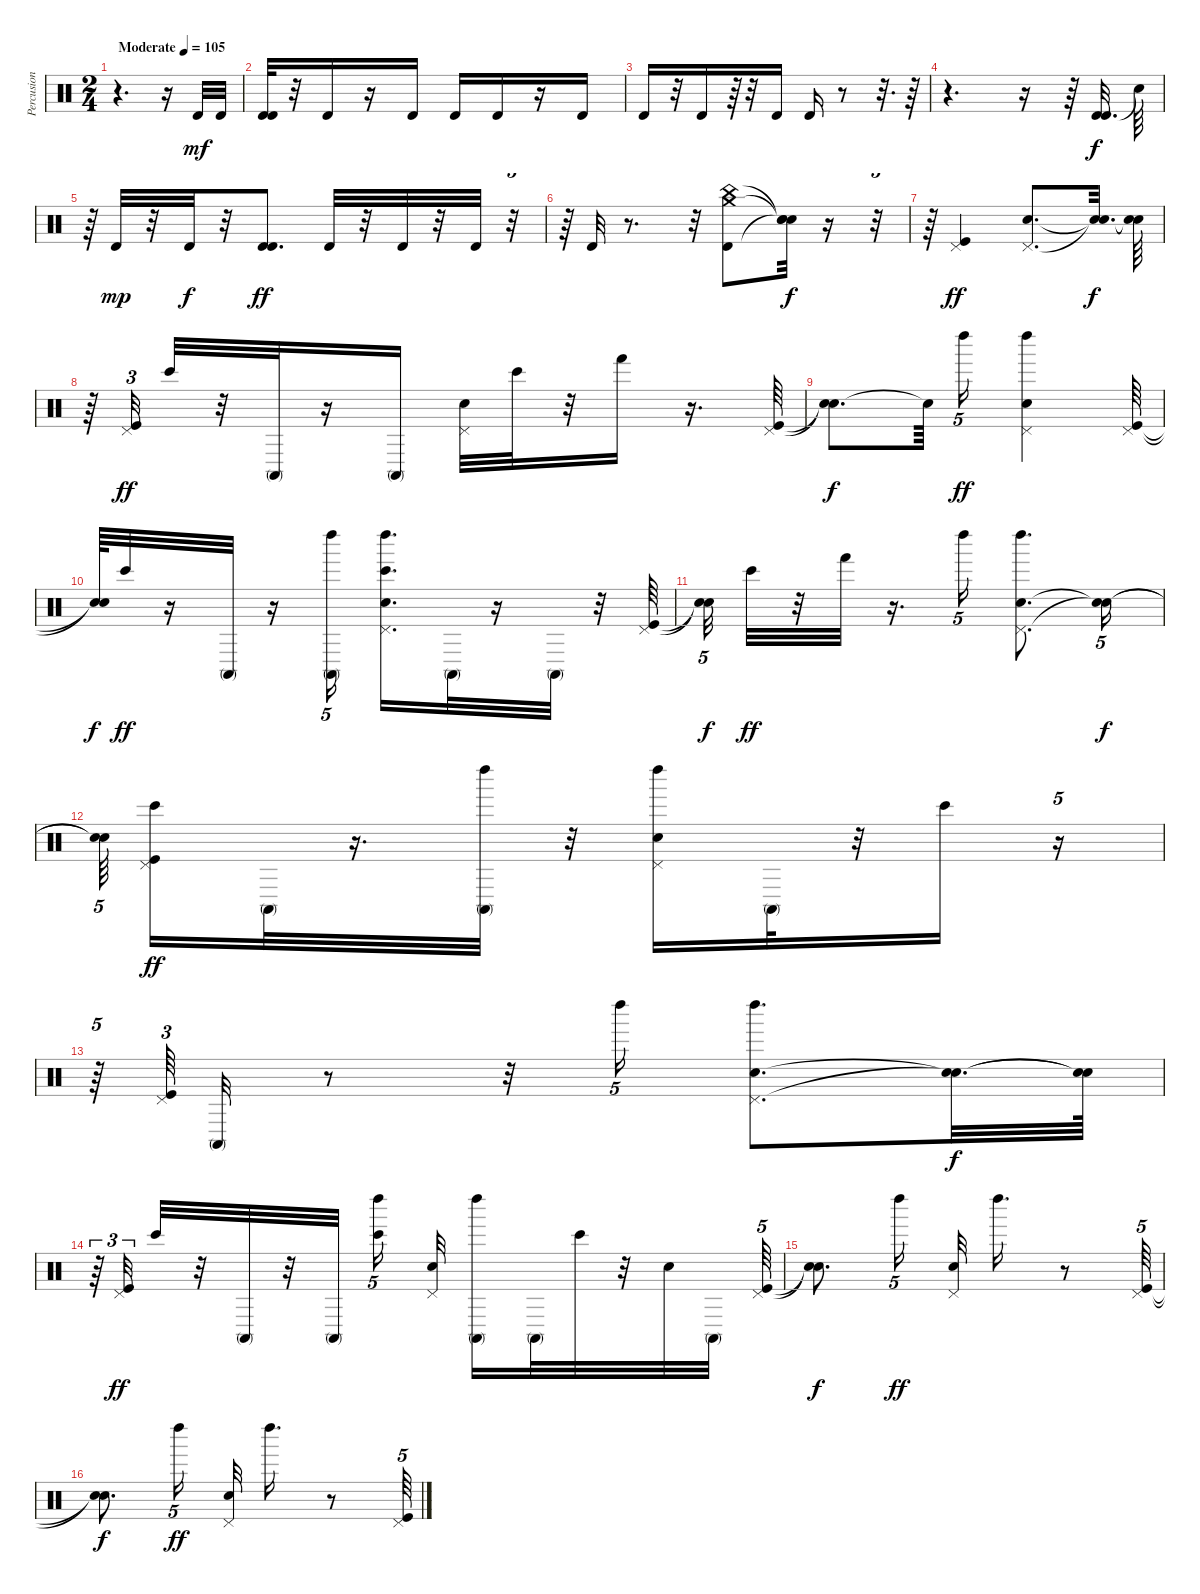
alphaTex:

\track ("Percusion" "Percusion") {instrument percussion}
\staff {score}
\articulation defaults
\ts (2 4)
\tempo (105 "Moderate")
\clef neutral
\ks c
r.4{d dy mf} r.16 "Timbale high (hit)".32 "Timbale high (hit)".32 |
("Timbale high (hit)" "Timbale high (hit)").32 r.32 "Timbale high (hit)".16 r.16 "Timbale high (hit)".16 "Timbale high (hit)".16 "Timbale high (hit)".16 r.16 "Timbale high (hit)".16 |
"Timbale high (hit)".16 r.32 "Timbale high (hit)".16 r.64 r.32 "Timbale high (hit)".16 "Timbale high (hit)".16 r.8 r.32{d} r.64 |
r.4{d} r.16 r.64 ("Timbale high (hit)" "Timbale high (hit)").32{d dy f} "Snare (hit)"{t}.64 |
r.64 "Timbale high (hit)".32{dy mp} r.32 "Timbale high (hit)".32{dy f} r.32 ("Timbale high (hit)" "Timbale high (hit)").8{d dy ff} "Timbale high (hit)".32 r.32 "Timbale high (hit)".32 r.32 "Timbale high (hit)".32 r.32{tu (5 4)} |
r.64 "Timbale high (hit)".32 r.8{d} r.32 ("China (hit)" "Crash medium (hit)" "Timbale high (hit)").8 ("Snare (hit)"{t} "Snare (hit)"{t} "Snare (hit)"{t}).32{dy f} r.16 r.32{tu (5 4)} |
r.64 ("Kick (hit)" "Pedal Hi-Hat (hit)").4{dy ff} ("Pedal Hi-Hat (hit)" "Electric Snare (hit)").8{d} ("Snare (hit)"{t} "Snare (hit)"{t}).32{d dy f} ("Snare (hit)"{t} "Snare (hit)"{t}).64 |
r.64 ("Pedal Hi-Hat (hit)" "Kick (hit)").32{tu (3 2) dy ff} "Bongo High (hit)".32 r.32 "Conga high (mute)".32 r.16 "Conga high (mute)".16 ("Electric Snare (hit)" "Pedal Hi-Hat (hit)").32 "Bongo High (hit)".32 r.32 "Hand (hit)".16 r.16{d} ("Kick (hit)" "Pedal Hi-Hat (hit)").64 |
("Snare (hit)"{t} "Snare (hit)"{t}).8{d dy f} "Snare (hit)"{t}.64{beam splitsecondary} "Left Maraca (hit)".16{tu (5 4) dy ff} ("Pedal Hi-Hat (hit)" "Electric Snare (hit)" "Left Maraca (hit)").4 ("Kick (hit)" "Pedal Hi-Hat (hit)").64 |
("Snare (hit)"{t} "Snare (hit)"{t}).64{dy f} "Bongo High (hit)".32{dy ff} r.16 "Conga high (mute)".32 r.16 ("Conga high (mute)" "Left Maraca (hit)").16{tu (5 4)} ("Electric Snare (hit)" "Pedal Hi-Hat (hit)" "Bongo High (hit)" "Left Maraca (hit)").16{d} "Conga high (mute)".32 r.16 "Conga high (mute)".32 r.32 ("Pedal Hi-Hat (hit)" "Kick (hit)").64 |
("Snare (hit)"{t} "Snare (hit)"{t}).32{tu (5 4) dy f} "Bongo High (hit)".32{dy ff} r.32 "Hand (hit)".32 r.16{d} "Left Maraca (hit)".16{tu (5 4)} ("Pedal Hi-Hat (hit)" "Electric Snare (hit)" "Left Maraca (hit)").8{d} ("Snare (hit)"{t} "Snare (hit)"{t}).16{tu (5 4) dy f} |
("Snare (hit)"{t} "Snare (hit)"{t}).64{tu (5 4) beam splitsecondary} ("Kick (hit)" "Pedal Hi-Hat (hit)" "Bongo High (hit)").16{dy ff} "Conga high (mute)".32 r.16{d} ("Left Maraca (hit)" "Conga high (mute)").32 r.32 ("Electric Snare (hit)" "Pedal Hi-Hat (hit)" "Left Maraca (hit)").16 "Conga high (mute)".32 r.32 "Bongo High (hit)".16 r.16{tu (5 4)} |
r.64{tu (5 4)} ("Pedal Hi-Hat (hit)" "Kick (hit)").64{tu (3 2)} "Conga high (mute)".32 r.8 r.32 "Left Maraca (hit)".16{tu (5 4)} ("Pedal Hi-Hat (hit)" "Electric Snare (hit)" "Left Maraca (hit)").8{d} ("Snare (hit)"{t} "Snare (hit)"{t}).32{d dy f} ("Snare (hit)"{t} "Snare (hit)"{t}).64 |
r.64{tu (3 2)} ("Kick (hit)" "Pedal Hi-Hat (hit)").32{tu (3 2) dy ff} "Bongo High (hit)".32 r.32 "Conga high (mute)".32 r.32 "Conga high (mute)".32{beam splitsecondary} ("Bongo High (hit)" "Left Maraca (hit)").16{tu (5 4)} ("Electric Snare (hit)" "Pedal Hi-Hat (hit)").32 ("Left Maraca (hit)" "Conga high (mute)").16 "Conga high (mute)".32 "Bongo High (hit)".32 r.32 "Electric Snare (hit)".32 "Conga high (mute)".32{beam splitsecondary} ("Pedal Hi-Hat (hit)" "Kick (hit)").64{tu (5 4)} |
("Snare (hit)"{t} "Snare (hit)"{t}).8{d dy f} "Left Maraca (hit)".16{tu (5 4) dy ff} ("Electric Snare (hit)" "Pedal Hi-Hat (hit)").32 "Left Maraca (hit)".16{d} r.8 ("Kick (hit)" "Pedal Hi-Hat (hit)").64{tu (5 4)} |
("Snare (hit)"{t} "Snare (hit)"{t}).8{d dy f} "Left Maraca (hit)".16{tu (5 4) dy ff} ("Pedal Hi-Hat (hit)" "Electric Snare (hit)").32 "Left Maraca (hit)".16{d} r.8 ("Pedal Hi-Hat (hit)" "Kick (hit)").64{tu (5 4)}
